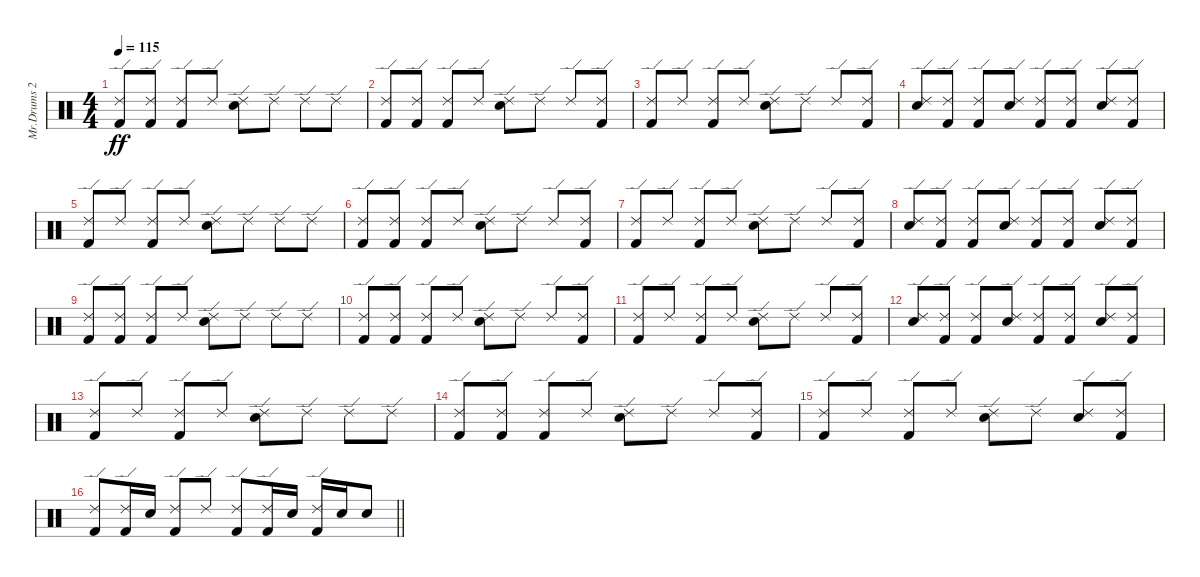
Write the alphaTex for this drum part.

\track ("Mr.Drums 2" "Mr.Drums 2") {instrument percussion}
\staff {score}
\articulation defaults
\ts (4 4)
\tempo 115
\clef neutral
\ks c
("Ride (edge) 2" "Kick (hit) 2").8{dy ff} ("Ride (edge) 2" "Kick (hit) 2").8 ("Ride (edge) 2" "Kick (hit) 2").8 "Ride (edge) 2".8 ("Ride (edge) 2" "Electric Snare (hit)").8 "Ride (edge) 2".8 "Ride (edge) 2".8 "Ride (edge) 2".8 |
("Ride (edge) 2" "Kick (hit) 2").8 ("Ride (edge) 2" "Kick (hit) 2").8 ("Ride (edge) 2" "Kick (hit) 2").8 "Ride (edge) 2".8 ("Ride (edge) 2" "Electric Snare (hit)").8 "Ride (edge) 2".8 "Ride (edge) 2".8 ("Ride (edge) 2" "Kick (hit) 2").8 |
("Ride (edge) 2" "Kick (hit) 2").8 "Ride (edge) 2".8 ("Ride (edge) 2" "Kick (hit) 2").8 "Ride (edge) 2".8 ("Ride (edge) 2" "Electric Snare (hit)").8 "Ride (edge) 2".8 "Ride (edge) 2".8 ("Ride (edge) 2" "Kick (hit) 2").8 |
("Ride (edge) 2" "Electric Snare (hit)").8 ("Ride (edge) 2" "Kick (hit) 2").8 ("Ride (edge) 2" "Kick (hit) 2").8 ("Ride (edge) 2" "Electric Snare (hit)").8 ("Ride (edge) 2" "Kick (hit) 2").8 ("Ride (edge) 2" "Kick (hit) 2").8 ("Ride (edge) 2" "Electric Snare (hit)").8 ("Ride (edge) 2" "Kick (hit) 2").8 |
("Ride (edge) 2" "Kick (hit) 2").8 "Ride (edge) 2".8 ("Ride (edge) 2" "Kick (hit) 2").8 "Ride (edge) 2".8 ("Ride (edge) 2" "Electric Snare (hit)").8 "Ride (edge) 2".8 "Ride (edge) 2".8 "Ride (edge) 2".8 |
("Ride (edge) 2" "Kick (hit) 2").8 ("Ride (edge) 2" "Kick (hit) 2").8 ("Ride (edge) 2" "Kick (hit) 2").8 "Ride (edge) 2".8 ("Ride (edge) 2" "Electric Snare (hit)").8 "Ride (edge) 2".8 "Ride (edge) 2".8 ("Ride (edge) 2" "Kick (hit) 2").8 |
("Ride (edge) 2" "Kick (hit) 2").8 "Ride (edge) 2".8 ("Ride (edge) 2" "Kick (hit) 2").8 "Ride (edge) 2".8 ("Ride (edge) 2" "Electric Snare (hit)").8 "Ride (edge) 2".8 "Ride (edge) 2".8 ("Ride (edge) 2" "Kick (hit) 2").8 |
("Ride (edge) 2" "Electric Snare (hit)").8 ("Ride (edge) 2" "Kick (hit) 2").8 ("Ride (edge) 2" "Kick (hit) 2").8 ("Ride (edge) 2" "Electric Snare (hit)").8 ("Ride (edge) 2" "Kick (hit) 2").8 ("Ride (edge) 2" "Kick (hit) 2").8 ("Ride (edge) 2" "Electric Snare (hit)").8 ("Ride (edge) 2" "Kick (hit) 2").8 |
("Ride (edge) 2" "Kick (hit) 2").8 ("Ride (edge) 2" "Kick (hit) 2").8 ("Ride (edge) 2" "Kick (hit) 2").8 "Ride (edge) 2".8 ("Ride (edge) 2" "Electric Snare (hit)").8 "Ride (edge) 2".8 "Ride (edge) 2".8 "Ride (edge) 2".8 |
("Ride (edge) 2" "Kick (hit) 2").8 ("Ride (edge) 2" "Kick (hit) 2").8 ("Ride (edge) 2" "Kick (hit) 2").8 "Ride (edge) 2".8 ("Ride (edge) 2" "Electric Snare (hit)").8 "Ride (edge) 2".8 "Ride (edge) 2".8 ("Ride (edge) 2" "Kick (hit) 2").8 |
("Ride (edge) 2" "Kick (hit) 2").8 "Ride (edge) 2".8 ("Ride (edge) 2" "Kick (hit) 2").8 "Ride (edge) 2".8 ("Ride (edge) 2" "Electric Snare (hit)").8 "Ride (edge) 2".8 "Ride (edge) 2".8 ("Ride (edge) 2" "Kick (hit) 2").8 |
("Ride (edge) 2" "Electric Snare (hit)").8 ("Ride (edge) 2" "Kick (hit) 2").8 ("Ride (edge) 2" "Kick (hit) 2").8 ("Ride (edge) 2" "Electric Snare (hit)").8 ("Ride (edge) 2" "Kick (hit) 2").8 ("Ride (edge) 2" "Kick (hit) 2").8 ("Ride (edge) 2" "Electric Snare (hit)").8 ("Ride (edge) 2" "Kick (hit) 2").8 |
("Ride (edge) 2" "Kick (hit) 2").8 "Ride (edge) 2".8 ("Ride (edge) 2" "Kick (hit) 2").8 "Ride (edge) 2".8 ("Ride (edge) 2" "Electric Snare (hit)").8 "Ride (edge) 2".8 "Ride (edge) 2".8 "Ride (edge) 2".8 |
("Ride (edge) 2" "Kick (hit) 2").8 ("Ride (edge) 2" "Kick (hit) 2").8 ("Ride (edge) 2" "Kick (hit) 2").8 "Ride (edge) 2".8 ("Ride (edge) 2" "Electric Snare (hit)").8 "Ride (edge) 2".8 "Ride (edge) 2".8 ("Ride (edge) 2" "Kick (hit) 2").8 |
("Ride (edge) 2" "Kick (hit) 2").8 "Ride (edge) 2".8 ("Ride (edge) 2" "Kick (hit) 2").8 "Ride (edge) 2".8 ("Ride (edge) 2" "Electric Snare (hit)").8 "Ride (edge) 2".8 ("Ride (edge) 2" "Electric Snare (hit)").8 ("Ride (edge) 2" "Kick (hit) 2").8 |
\barLineRight lightlight
("Ride (edge) 2" "Kick (hit) 2").8 ("Ride (edge) 2" "Kick (hit) 2").16 "Electric Snare (hit)".16 ("Ride (edge) 2" "Kick (hit) 2").8 "Ride (edge) 2".8 ("Ride (edge) 2" "Kick (hit) 2").8 ("Ride (edge) 2" "Kick (hit) 2").16 "Electric Snare (hit)".16 ("Ride (edge) 2" "Kick (hit) 2").16 "Electric Snare (hit)".16 "Electric Snare (hit)".8
